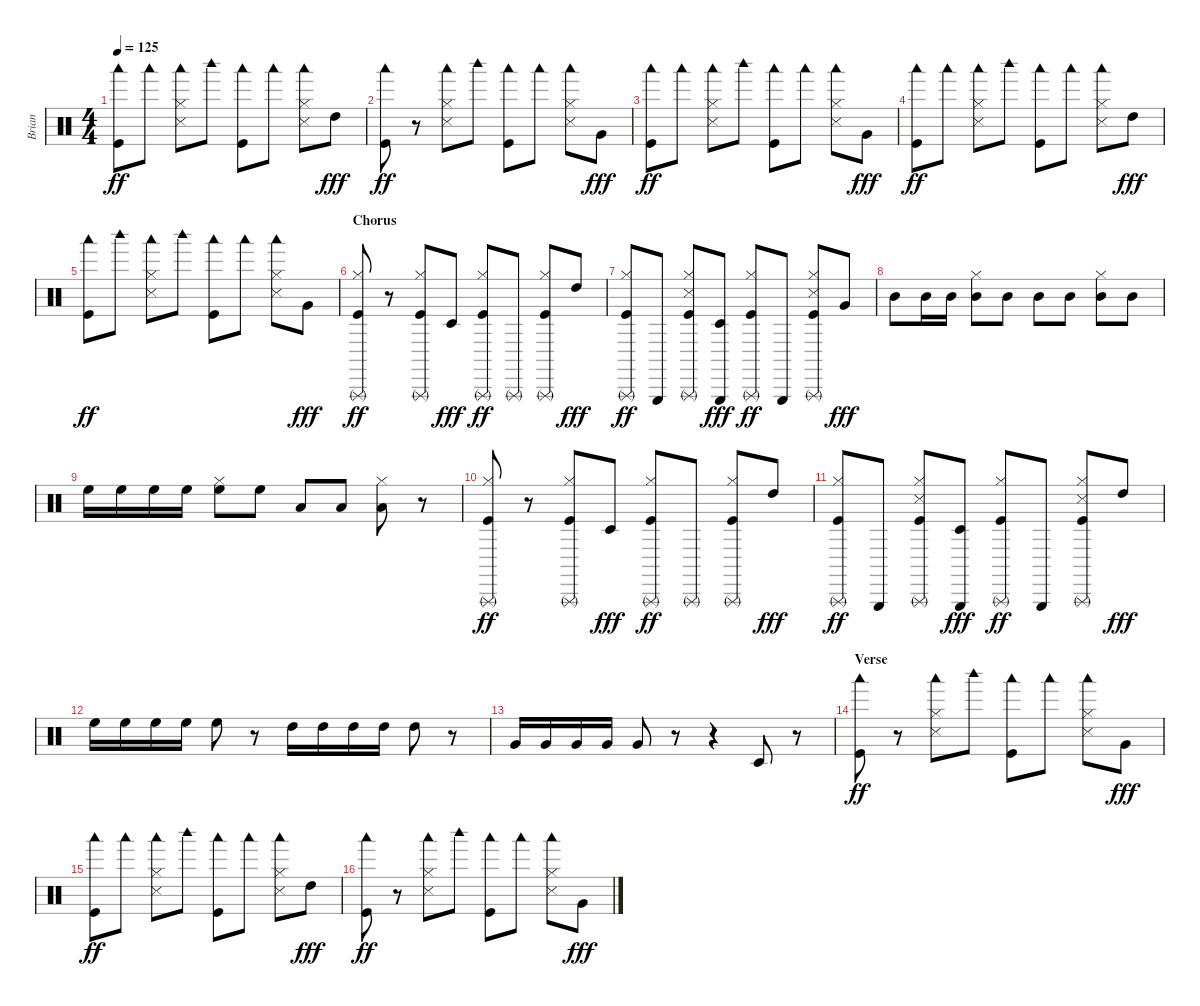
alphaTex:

\track ("Brian" "Brian") {instrument percussion}
\staff {score}
\articulation defaults
\ts (4 4)
\tempo 125
\clef neutral
\ks c
("Woodblock low (hit)" "Kick (hit)").8{dy ff} "Woodblock low (hit)".8 ("Woodblock low (hit)" "Hi-Hat (closed)" "Snare (side stick) 3").8 "Woodblock high (hit)".8 ("Woodblock low (hit)" "Kick (hit)").8 "Woodblock low (hit)".8 ("Woodblock low (hit)" "Hi-Hat (closed)" "Snare (side stick) 3").8 "High Tom (hit)".8{dy fff} |
("Woodblock low (hit)" "Kick (hit)").8{dy ff} r.8 ("Woodblock low (hit)" "Hi-Hat (closed)" "Snare (side stick) 3").8 "Woodblock high (hit)".8 ("Woodblock low (hit)" "Kick (hit)").8 "Woodblock low (hit)".8 ("Woodblock low (hit)" "Hi-Hat (closed)" "Snare (side stick) 3").8 "Very Low Tom (hit)".8{dy fff} |
("Woodblock low (hit)" "Kick (hit)").8{dy ff} "Woodblock low (hit)".8 ("Woodblock low (hit)" "Hi-Hat (closed)" "Snare (side stick) 3").8 "Woodblock high (hit)".8 ("Woodblock low (hit)" "Kick (hit)").8 "Woodblock low (hit)".8 ("Woodblock low (hit)" "Hi-Hat (closed)" "Snare (side stick) 3").8 "Very Low Tom (hit)".8{dy fff} |
("Woodblock low (hit)" "Kick (hit)").8{dy ff} "Woodblock low (hit)".8 ("Woodblock low (hit)" "Hi-Hat (closed)" "Snare (side stick) 3").8 "Woodblock high (hit)".8 ("Woodblock low (hit)" "Kick (hit)").8 "Woodblock low (hit)".8 ("Woodblock low (hit)" "Hi-Hat (closed)" "Snare (side stick) 3").8 "High Tom (hit)".8{dy fff} |
("Woodblock low (hit)" "Kick (hit)").8{dy ff} "Woodblock high (hit)".8 ("Woodblock low (hit)" "Hi-Hat (closed)" "Snare (side stick) 3").8 "Woodblock high (hit)".8 ("Woodblock low (hit)" "Kick (hit)").8 "Woodblock low (hit)".8 ("Woodblock low (hit)" "Hi-Hat (closed)" "Snare (side stick) 3").8 "Very Low Tom (hit)".8{dy fff} |
\section ("" "Chorus")
("Triangle (rnute)" "Hi-Hat (closed)" "Kick (hit)").8{dy ff} r.8 ("Triangle (rnute)" "Hi-Hat (closed)" "Kick (hit)").8 "Timbale low (hit)".8{dy fff} ("Triangle (rnute)" "Hi-Hat (closed)" "Kick (hit)").8{dy ff} "Triangle (rnute)".8 ("Triangle (rnute)" "Hi-Hat (closed)" "Kick (hit)").8 "High Tom (hit)".8{dy fff} |
("Triangle (rnute)" "Hi-Hat (closed)" "Kick (hit)").8{dy ff} "Triangle (hit)".8 ("Triangle (rnute)" "Hi-Hat (closed)" "Snare (side stick) 3" "Kick (hit)").8 ("Triangle (hit)" "Timbale low (hit)").8{dy fff} ("Triangle (rnute)" "Hi-Hat (closed)" "Kick (hit)").8{dy ff} "Triangle (hit)".8 ("Triangle (rnute)" "Hi-Hat (closed)" "Snare (side stick) 3" "Kick (hit)").8 "Very Low Tom (hit)".8{dy fff} |
"Mid Tom (hit)".8 "Mid Tom (hit)".16 "Mid Tom (hit)".16 ("Hi-Hat (closed)" "Mid Tom (hit)").8 "Mid Tom (hit)".8 "Mid Tom (hit)".8 "Mid Tom (hit)".8 ("Hi-Hat (closed)" "Mid Tom (hit)").8 "Mid Tom (hit)".8 |
"High Floor Tom (hit)".16 "High Floor Tom (hit)".16 "High Floor Tom (hit)".16 "High Floor Tom (hit)".16 ("Hi-Hat (closed)" "High Floor Tom (hit)").8 "High Floor Tom (hit)".8 "Low Floor Tom (hit)".8 "Low Floor Tom (hit)".8 ("Hi-Hat (closed)" "Low Floor Tom (hit)").8 r.8 |
("Triangle (rnute)" "Hi-Hat (closed)" "Kick (hit)").8{dy ff} r.8 ("Triangle (rnute)" "Hi-Hat (closed)" "Kick (hit)").8 "Timbale low (hit)".8{dy fff} ("Triangle (rnute)" "Hi-Hat (closed)" "Kick (hit)").8{dy ff} "Triangle (rnute)".8 ("Triangle (rnute)" "Hi-Hat (closed)" "Kick (hit)").8 "High Tom (hit)".8{dy fff} |
("Triangle (rnute)" "Hi-Hat (closed)" "Kick (hit)").8{dy ff} "Triangle (hit)".8 ("Triangle (rnute)" "Hi-Hat (closed)" "Snare (side stick) 3" "Kick (hit)").8 ("Triangle (hit)" "Timbale low (hit)").8{dy fff} ("Triangle (rnute)" "Hi-Hat (closed)" "Kick (hit)").8{dy ff} "Triangle (hit)".8 ("Triangle (rnute)" "Hi-Hat (closed)" "Snare (side stick) 3" "Kick (hit)").8 "High Tom (hit)".8{dy fff} |
"High Floor Tom (hit)".16 "High Floor Tom (hit)".16 "High Floor Tom (hit)".16 "High Floor Tom (hit)".16 "High Floor Tom (hit)".8 r.8 "High Tom (hit)".16 "High Tom (hit)".16 "High Tom (hit)".16 "High Tom (hit)".16 "High Tom (hit)".8 r.8 |
"Very Low Tom (hit)".16 "Very Low Tom (hit)".16 "Very Low Tom (hit)".16 "Very Low Tom (hit)".16 "Very Low Tom (hit)".8 r.8 r.4 "Timbale low (hit)".8 r.8 |
\section ("" "Verse")
("Woodblock low (hit)" "Kick (hit)").8{dy ff} r.8 ("Woodblock low (hit)" "Hi-Hat (closed)" "Snare (side stick) 3").8 "Woodblock high (hit)".8 ("Woodblock low (hit)" "Kick (hit)").8 "Woodblock low (hit)".8 ("Woodblock low (hit)" "Hi-Hat (closed)" "Snare (side stick) 3").8 "Very Low Tom (hit)".8{dy fff} |
("Woodblock low (hit)" "Kick (hit)").8{dy ff} "Woodblock low (hit)".8 ("Woodblock low (hit)" "Hi-Hat (closed)" "Snare (side stick) 3").8 "Woodblock high (hit)".8 ("Woodblock low (hit)" "Kick (hit)").8 "Woodblock low (hit)".8 ("Woodblock low (hit)" "Hi-Hat (closed)" "Snare (side stick) 3").8 "High Tom (hit)".8{dy fff} |
("Woodblock low (hit)" "Kick (hit)").8{dy ff} r.8 ("Woodblock low (hit)" "Hi-Hat (closed)" "Snare (side stick) 3").8 "Woodblock high (hit)".8 ("Woodblock low (hit)" "Kick (hit)").8 "Woodblock low (hit)".8 ("Woodblock low (hit)" "Hi-Hat (closed)" "Snare (side stick) 3").8 "Very Low Tom (hit)".8{dy fff}
